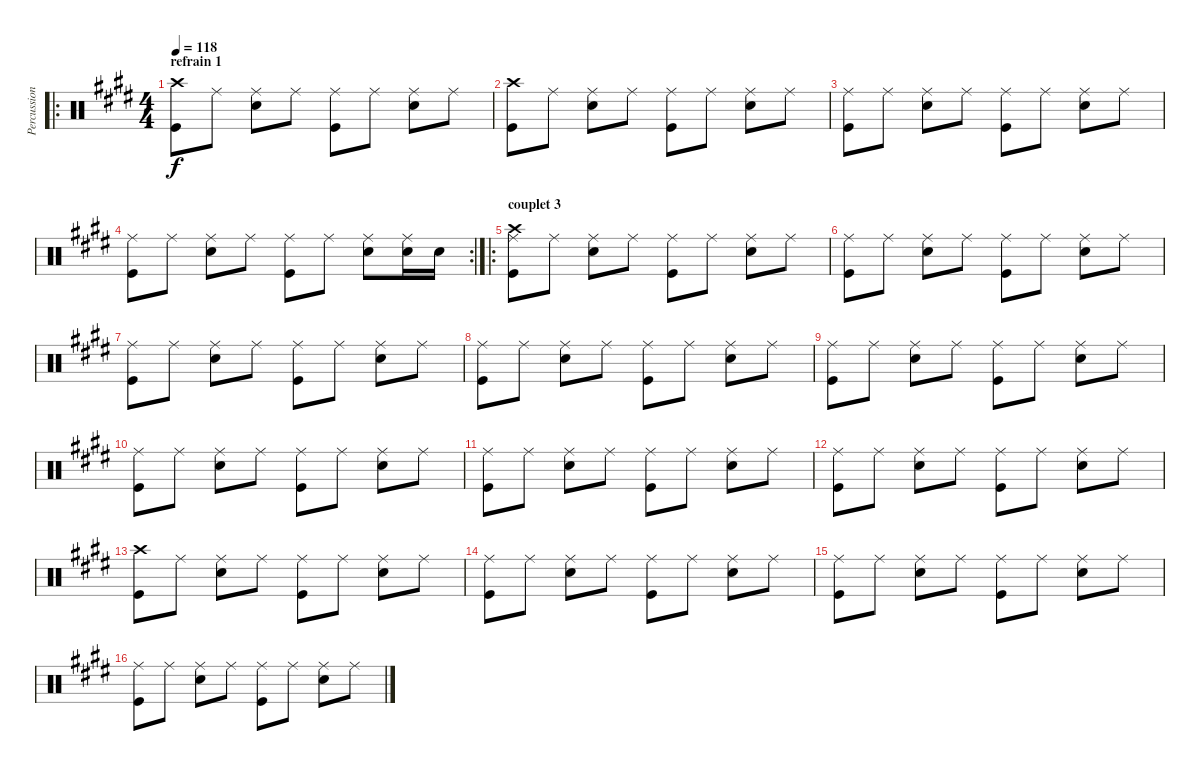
\track ("Percussions" "Percussion") {instrument percussion}
\staff {score}
\articulation defaults
\ro
\ts (4 4)
\section ("" "refrain 1")
\tempo 118
\clef neutral
\ks e
("Crash high (hit)" "Kick (hit)").8{dy f} "Ride (middle)".8 ("Ride (middle)" "Electric Snare (hit)").8 "Ride (middle)".8 ("Ride (middle)" "Kick (hit)").8 "Ride (middle)".8 ("Ride (middle)" "Electric Snare (hit)").8 "Ride (middle)".8 |
("Crash high (hit)" "Kick (hit)").8 "Ride (middle)".8 ("Ride (middle)" "Electric Snare (hit)").8 "Ride (middle)".8 ("Ride (middle)" "Kick (hit)").8 "Ride (middle)".8 ("Ride (middle)" "Electric Snare (hit)").8 "Ride (middle)".8 |
("Ride (middle)" "Kick (hit)").8 "Ride (middle)".8 ("Ride (middle)" "Electric Snare (hit)").8 "Ride (middle)".8 ("Ride (middle)" "Kick (hit)").8 "Ride (middle)".8 ("Ride (middle)" "Electric Snare (hit)").8 "Ride (middle)".8 |
\rc 2
("Ride (middle)" "Kick (hit)").8 "Ride (middle)".8 ("Ride (middle)" "Electric Snare (hit)").8 "Ride (middle)".8 ("Ride (middle)" "Kick (hit)").8 "Ride (middle)".8 ("Ride (middle)" "Electric Snare (hit)").8 ("Ride (middle)" "Electric Snare (hit)").16 "Electric Snare (hit)".16 |
\ro
\section ("" "couplet 3")
("Ride (middle)" "Kick (hit)" "Crash high (hit)").8 "Ride (middle)".8 ("Ride (middle)" "Electric Snare (hit)").8 "Ride (middle)".8 ("Ride (middle)" "Kick (hit)").8 "Ride (middle)".8 ("Ride (middle)" "Electric Snare (hit)").8 "Ride (middle)".8 |
("Ride (middle)" "Kick (hit)").8 "Ride (middle)".8 ("Ride (middle)" "Electric Snare (hit)").8 "Ride (middle)".8 ("Ride (middle)" "Kick (hit)").8 "Ride (middle)".8 ("Ride (middle)" "Electric Snare (hit)").8 "Ride (middle)".8 |
("Ride (middle)" "Kick (hit)").8 "Ride (middle)".8 ("Ride (middle)" "Electric Snare (hit)").8 "Ride (middle)".8 ("Ride (middle)" "Kick (hit)").8 "Ride (middle)".8 ("Ride (middle)" "Electric Snare (hit)").8 "Ride (middle)".8 |
("Ride (middle)" "Kick (hit)").8 "Ride (middle)".8 ("Ride (middle)" "Electric Snare (hit)").8 "Ride (middle)".8 ("Ride (middle)" "Kick (hit)").8 "Ride (middle)".8 ("Ride (middle)" "Electric Snare (hit)").8 "Ride (middle)".8 |
("Ride (middle)" "Kick (hit)").8 "Ride (middle)".8 ("Ride (middle)" "Electric Snare (hit)").8 "Ride (middle)".8 ("Ride (middle)" "Kick (hit)").8 "Ride (middle)".8 ("Ride (middle)" "Electric Snare (hit)").8 "Ride (middle)".8 |
("Ride (middle)" "Kick (hit)").8 "Ride (middle)".8 ("Ride (middle)" "Electric Snare (hit)").8 "Ride (middle)".8 ("Ride (middle)" "Kick (hit)").8 "Ride (middle)".8 ("Ride (middle)" "Electric Snare (hit)").8 "Ride (middle)".8 |
("Ride (middle)" "Kick (hit)").8 "Ride (middle)".8 ("Ride (middle)" "Electric Snare (hit)").8 "Ride (middle)".8 ("Ride (middle)" "Kick (hit)").8 "Ride (middle)".8 ("Ride (middle)" "Electric Snare (hit)").8 "Ride (middle)".8 |
("Ride (middle)" "Kick (hit)").8 "Ride (middle)".8 ("Ride (middle)" "Electric Snare (hit)").8 "Ride (middle)".8 ("Ride (middle)" "Kick (hit)").8 "Ride (middle)".8 ("Ride (middle)" "Electric Snare (hit)").8 "Ride (middle)".8 |
("Crash high (hit)" "Kick (hit)").8 "Ride (middle)".8 ("Ride (middle)" "Electric Snare (hit)").8 "Ride (middle)".8 ("Ride (middle)" "Kick (hit)").8 "Ride (middle)".8 ("Ride (middle)" "Electric Snare (hit)").8 "Ride (middle)".8 |
("Ride (middle)" "Kick (hit)").8 "Ride (middle)".8 ("Ride (middle)" "Electric Snare (hit)").8 "Ride (middle)".8 ("Ride (middle)" "Kick (hit)").8 "Ride (middle)".8 ("Ride (middle)" "Electric Snare (hit)").8 "Ride (middle)".8 |
("Ride (middle)" "Kick (hit)").8 "Ride (middle)".8 ("Ride (middle)" "Electric Snare (hit)").8 "Ride (middle)".8 ("Ride (middle)" "Kick (hit)").8 "Ride (middle)".8 ("Ride (middle)" "Electric Snare (hit)").8 "Ride (middle)".8 |
("Ride (middle)" "Kick (hit)").8 "Ride (middle)".8 ("Ride (middle)" "Electric Snare (hit)").8 "Ride (middle)".8 ("Ride (middle)" "Kick (hit)").8 "Ride (middle)".8 ("Ride (middle)" "Electric Snare (hit)").8 "Ride (middle)".8
